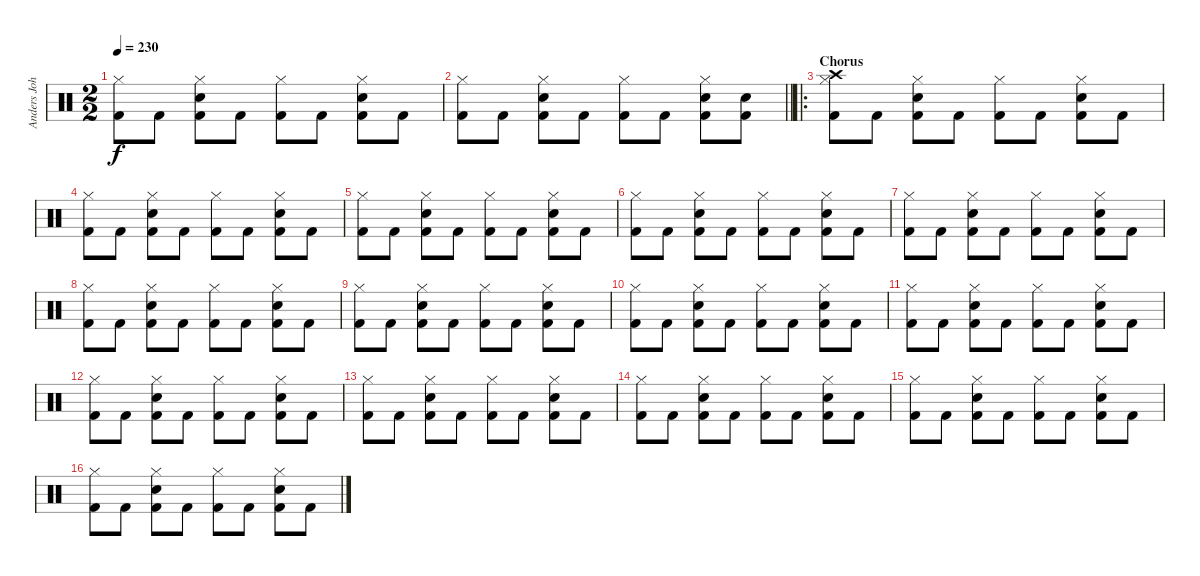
\track ("Anders Johansson" "Anders Joh") {instrument percussion}
\staff {score}
\articulation defaults
\ts (2 2)
\tempo 230
\clef neutral
\ks c
("Hi-Hat (closed)" "Kick (hit) 2").8{dy f} "Kick (hit) 2".8 ("Electric Snare (hit)" "Hi-Hat (closed)" "Kick (hit) 2").8 "Kick (hit) 2".8 ("Hi-Hat (closed)" "Kick (hit) 2").8 "Kick (hit) 2".8 ("Electric Snare (hit)" "Hi-Hat (closed)" "Kick (hit) 2").8 "Kick (hit) 2".8 |
\barLineRight lightlight
("Hi-Hat (closed)" "Kick (hit) 2").8 "Kick (hit) 2".8 ("Electric Snare (hit)" "Hi-Hat (closed)" "Kick (hit) 2").8 "Kick (hit) 2".8 ("Hi-Hat (closed)" "Kick (hit) 2").8 "Kick (hit) 2".8 ("Electric Snare (hit)" "Hi-Hat (closed)" "Kick (hit) 2").8 ("Electric Snare (hit)" "Kick (hit) 2").8 |
\ro
\section ("" "Chorus")
("Crash high (hit)" "Hi-Hat (closed)" "Kick (hit) 2").8 "Kick (hit) 2".8 ("Electric Snare (hit)" "Hi-Hat (closed)" "Kick (hit) 2").8 "Kick (hit) 2".8 ("Hi-Hat (closed)" "Kick (hit) 2").8 "Kick (hit) 2".8 ("Electric Snare (hit)" "Hi-Hat (closed)" "Kick (hit) 2").8 "Kick (hit) 2".8 |
("Hi-Hat (closed)" "Kick (hit) 2").8 "Kick (hit) 2".8 ("Electric Snare (hit)" "Hi-Hat (closed)" "Kick (hit) 2").8 "Kick (hit) 2".8 ("Hi-Hat (closed)" "Kick (hit) 2").8 "Kick (hit) 2".8 ("Electric Snare (hit)" "Hi-Hat (closed)" "Kick (hit) 2").8 "Kick (hit) 2".8 |
("Hi-Hat (closed)" "Kick (hit) 2").8 "Kick (hit) 2".8 ("Electric Snare (hit)" "Hi-Hat (closed)" "Kick (hit) 2").8 "Kick (hit) 2".8 ("Hi-Hat (closed)" "Kick (hit) 2").8 "Kick (hit) 2".8 ("Electric Snare (hit)" "Hi-Hat (closed)" "Kick (hit) 2").8 "Kick (hit) 2".8 |
("Hi-Hat (closed)" "Kick (hit) 2").8 "Kick (hit) 2".8 ("Electric Snare (hit)" "Hi-Hat (closed)" "Kick (hit) 2").8 "Kick (hit) 2".8 ("Hi-Hat (closed)" "Kick (hit) 2").8 "Kick (hit) 2".8 ("Electric Snare (hit)" "Hi-Hat (closed)" "Kick (hit) 2").8 "Kick (hit) 2".8 |
("Hi-Hat (closed)" "Kick (hit) 2").8 "Kick (hit) 2".8 ("Electric Snare (hit)" "Hi-Hat (closed)" "Kick (hit) 2").8 "Kick (hit) 2".8 ("Hi-Hat (closed)" "Kick (hit) 2").8 "Kick (hit) 2".8 ("Electric Snare (hit)" "Hi-Hat (closed)" "Kick (hit) 2").8 "Kick (hit) 2".8 |
("Hi-Hat (closed)" "Kick (hit) 2").8 "Kick (hit) 2".8 ("Electric Snare (hit)" "Hi-Hat (closed)" "Kick (hit) 2").8 "Kick (hit) 2".8 ("Hi-Hat (closed)" "Kick (hit) 2").8 "Kick (hit) 2".8 ("Electric Snare (hit)" "Hi-Hat (closed)" "Kick (hit) 2").8 "Kick (hit) 2".8 |
("Hi-Hat (closed)" "Kick (hit) 2").8 "Kick (hit) 2".8 ("Electric Snare (hit)" "Hi-Hat (closed)" "Kick (hit) 2").8 "Kick (hit) 2".8 ("Hi-Hat (closed)" "Kick (hit) 2").8 "Kick (hit) 2".8 ("Electric Snare (hit)" "Hi-Hat (closed)" "Kick (hit) 2").8 "Kick (hit) 2".8 |
("Hi-Hat (closed)" "Kick (hit) 2").8 "Kick (hit) 2".8 ("Electric Snare (hit)" "Hi-Hat (closed)" "Kick (hit) 2").8 "Kick (hit) 2".8 ("Hi-Hat (closed)" "Kick (hit) 2").8 "Kick (hit) 2".8 ("Electric Snare (hit)" "Hi-Hat (closed)" "Kick (hit) 2").8 "Kick (hit) 2".8 |
("Hi-Hat (closed)" "Kick (hit) 2").8 "Kick (hit) 2".8 ("Electric Snare (hit)" "Hi-Hat (closed)" "Kick (hit) 2").8 "Kick (hit) 2".8 ("Hi-Hat (closed)" "Kick (hit) 2").8 "Kick (hit) 2".8 ("Electric Snare (hit)" "Hi-Hat (closed)" "Kick (hit) 2").8 "Kick (hit) 2".8 |
("Hi-Hat (closed)" "Kick (hit) 2").8 "Kick (hit) 2".8 ("Electric Snare (hit)" "Hi-Hat (closed)" "Kick (hit) 2").8 "Kick (hit) 2".8 ("Hi-Hat (closed)" "Kick (hit) 2").8 "Kick (hit) 2".8 ("Electric Snare (hit)" "Hi-Hat (closed)" "Kick (hit) 2").8 "Kick (hit) 2".8 |
("Hi-Hat (closed)" "Kick (hit) 2").8 "Kick (hit) 2".8 ("Electric Snare (hit)" "Hi-Hat (closed)" "Kick (hit) 2").8 "Kick (hit) 2".8 ("Hi-Hat (closed)" "Kick (hit) 2").8 "Kick (hit) 2".8 ("Electric Snare (hit)" "Hi-Hat (closed)" "Kick (hit) 2").8 "Kick (hit) 2".8 |
("Hi-Hat (closed)" "Kick (hit) 2").8 "Kick (hit) 2".8 ("Electric Snare (hit)" "Hi-Hat (closed)" "Kick (hit) 2").8 "Kick (hit) 2".8 ("Hi-Hat (closed)" "Kick (hit) 2").8 "Kick (hit) 2".8 ("Electric Snare (hit)" "Hi-Hat (closed)" "Kick (hit) 2").8 "Kick (hit) 2".8 |
("Hi-Hat (closed)" "Kick (hit) 2").8 "Kick (hit) 2".8 ("Electric Snare (hit)" "Hi-Hat (closed)" "Kick (hit) 2").8 "Kick (hit) 2".8 ("Hi-Hat (closed)" "Kick (hit) 2").8 "Kick (hit) 2".8 ("Electric Snare (hit)" "Hi-Hat (closed)" "Kick (hit) 2").8 "Kick (hit) 2".8 |
("Hi-Hat (closed)" "Kick (hit) 2").8 "Kick (hit) 2".8 ("Electric Snare (hit)" "Hi-Hat (closed)" "Kick (hit) 2").8 "Kick (hit) 2".8 ("Hi-Hat (closed)" "Kick (hit) 2").8 "Kick (hit) 2".8 ("Electric Snare (hit)" "Hi-Hat (closed)" "Kick (hit) 2").8 "Kick (hit) 2".8
